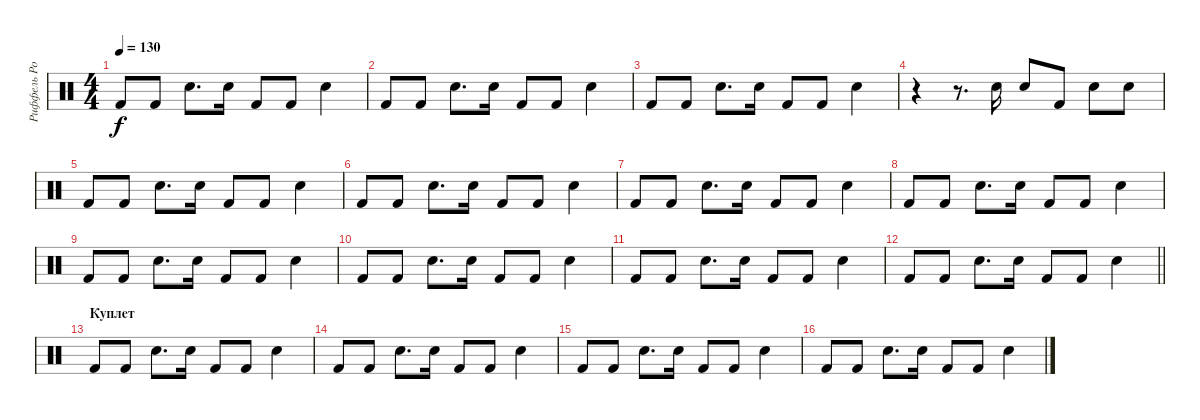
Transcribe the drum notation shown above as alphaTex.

\track ("Риффель Роман (главные)" "Риффель Ро") {instrument percussion}
\staff {score}
\articulation defaults
\ts (4 4)
\tempo 130
\clef neutral
\ks c "Kick (hit) 2".8{dy f} "Kick (hit) 2".8 "Electric Snare (hit)".8{d} "Electric Snare (hit)".16 "Kick (hit) 2".8 "Kick (hit) 2".8 "Electric Snare (hit)".4
|
"Kick (hit) 2".8 "Kick (hit) 2".8 "Electric Snare (hit)".8{d} "Electric Snare (hit)".16 "Kick (hit) 2".8 "Kick (hit) 2".8 "Electric Snare (hit)".4 |
"Kick (hit) 2".8 "Kick (hit) 2".8 "Electric Snare (hit)".8{d} "Electric Snare (hit)".16 "Kick (hit) 2".8 "Kick (hit) 2".8 "Electric Snare (hit)".4 |
r.4 r.8{d} "Electric Snare (hit)".16 "Electric Snare (hit)".8 "Kick (hit) 2".8 "Electric Snare (hit)".8 "Electric Snare (hit)".8 |
"Kick (hit) 2".8 "Kick (hit) 2".8 "Electric Snare (hit)".8{d} "Electric Snare (hit)".16 "Kick (hit) 2".8 "Kick (hit) 2".8 "Electric Snare (hit)".4 |
"Kick (hit) 2".8 "Kick (hit) 2".8 "Electric Snare (hit)".8{d} "Electric Snare (hit)".16 "Kick (hit) 2".8 "Kick (hit) 2".8 "Electric Snare (hit)".4 |
"Kick (hit) 2".8 "Kick (hit) 2".8 "Electric Snare (hit)".8{d} "Electric Snare (hit)".16 "Kick (hit) 2".8 "Kick (hit) 2".8 "Electric Snare (hit)".4 |
"Kick (hit) 2".8 "Kick (hit) 2".8 "Electric Snare (hit)".8{d} "Electric Snare (hit)".16 "Kick (hit) 2".8 "Kick (hit) 2".8 "Electric Snare (hit)".4 |
"Kick (hit) 2".8 "Kick (hit) 2".8 "Electric Snare (hit)".8{d} "Electric Snare (hit)".16 "Kick (hit) 2".8 "Kick (hit) 2".8 "Electric Snare (hit)".4 |
"Kick (hit) 2".8 "Kick (hit) 2".8 "Electric Snare (hit)".8{d} "Electric Snare (hit)".16 "Kick (hit) 2".8 "Kick (hit) 2".8 "Electric Snare (hit)".4 |
"Kick (hit) 2".8 "Kick (hit) 2".8 "Electric Snare (hit)".8{d} "Electric Snare (hit)".16 "Kick (hit) 2".8 "Kick (hit) 2".8 "Electric Snare (hit)".4 |
\barLineRight lightlight "Kick (hit) 2".8 "Kick (hit) 2".8 "Electric Snare (hit)".8{d} "Electric Snare (hit)".16 "Kick (hit) 2".8 "Kick (hit) 2".8 "Electric Snare (hit)".4
|
\section ("" "Куплет")
"Kick (hit) 2".8 "Kick (hit) 2".8 "Electric Snare (hit)".8{d} "Electric Snare (hit)".16 "Kick (hit) 2".8 "Kick (hit) 2".8 "Electric Snare (hit)".4 |
"Kick (hit) 2".8 "Kick (hit) 2".8 "Electric Snare (hit)".8{d} "Electric Snare (hit)".16 "Kick (hit) 2".8 "Kick (hit) 2".8 "Electric Snare (hit)".4 |
"Kick (hit) 2".8 "Kick (hit) 2".8 "Electric Snare (hit)".8{d} "Electric Snare (hit)".16 "Kick (hit) 2".8 "Kick (hit) 2".8 "Electric Snare (hit)".4 |
"Kick (hit) 2".8 "Kick (hit) 2".8 "Electric Snare (hit)".8{d} "Electric Snare (hit)".16 "Kick (hit) 2".8 "Kick (hit) 2".8 "Electric Snare (hit)".4
